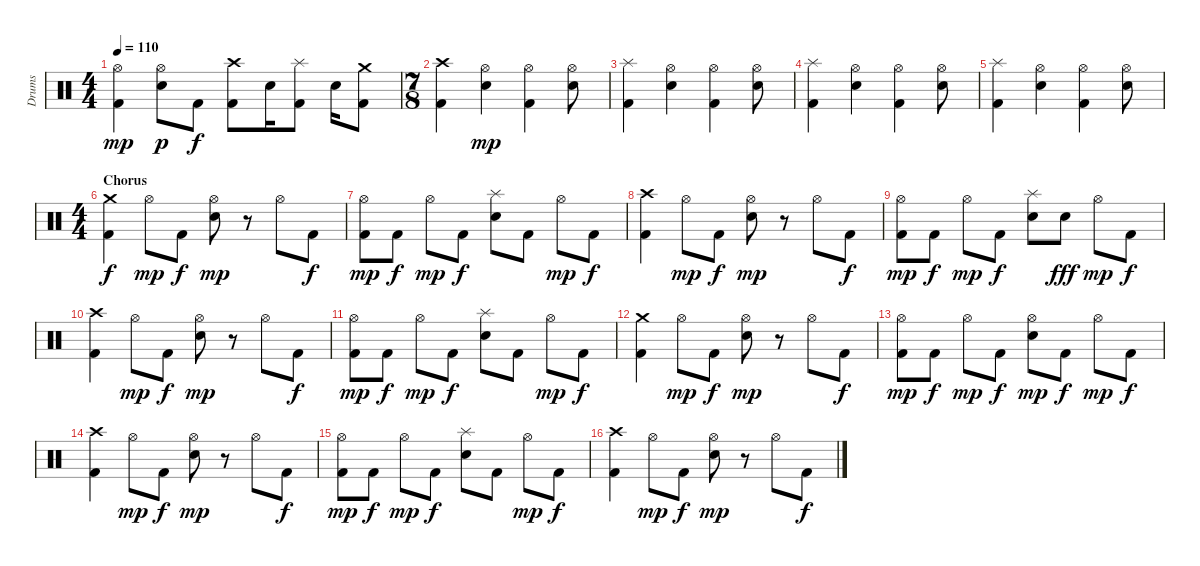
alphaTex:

\track ("Drums" "Drums") {instrument percussion}
\staff {score}
\articulation defaults
\ts (4 4)
\tempo 110
\clef neutral
\ks c
("Hi-Hat (open)" "Kick (hit) 2").4{dy mp} ("Hi-Hat (open)" "Snare (hit) 2").8{dy p} "Kick (hit) 2".8{dy f} ("Crash high (hit)" "Kick (hit) 2").8 "Snare (hit) 2".16 ("Splash (hit)" "Kick (hit) 2").8 "Snare (hit) 2".16 ("Crash medium (hit)" "Kick (hit) 2").8 |
\ts (7 8)
("Crash high (hit)" "Kick (hit) 2").4 ("Hi-Hat (open)" "Snare (hit) 2").4{dy mp} ("Hi-Hat (open)" "Kick (hit) 2").4 ("Hi-Hat (open)" "Snare (hit) 2").8 |
("Splash (hit)" "Kick (hit) 2").4 ("Hi-Hat (open)" "Snare (hit) 2").4 ("Hi-Hat (open)" "Kick (hit) 2").4 ("Hi-Hat (open)" "Snare (hit) 2").8 |
("Splash (hit)" "Kick (hit) 2").4 ("Hi-Hat (open)" "Snare (hit) 2").4 ("Hi-Hat (open)" "Kick (hit) 2").4 ("Hi-Hat (open)" "Snare (hit) 2").8 |
("Splash (hit)" "Kick (hit) 2").4 ("Hi-Hat (open)" "Snare (hit) 2").4 ("Hi-Hat (open)" "Kick (hit) 2").4 ("Hi-Hat (open)" "Snare (hit) 2").8 |
\ts (4 4)
\section ("" "Chorus")
("Crash medium (hit)" "Kick (hit) 2").4{dy f} "Hi-Hat (open)".8{dy mp} "Kick (hit) 2".8{dy f} ("Hi-Hat (open)" "Snare (hit) 2").8{dy mp} r.8 "Hi-Hat (open)".8 "Kick (hit) 2".8{dy f} |
("Hi-Hat (open)" "Kick (hit) 2").8{dy mp} "Kick (hit) 2".8{dy f} "Hi-Hat (open)".8{dy mp} "Kick (hit) 2".8{dy f} ("Splash (hit)" "Snare (hit) 2").8 "Kick (hit) 2".8 "Hi-Hat (open)".8{dy mp} "Kick (hit) 2".8{dy f} |
("Crash high (hit)" "Kick (hit) 2").4 "Hi-Hat (open)".8{dy mp} "Kick (hit) 2".8{dy f} ("Hi-Hat (open)" "Snare (hit) 2").8{dy mp} r.8 "Hi-Hat (open)".8 "Kick (hit) 2".8{dy f} |
("Hi-Hat (open)" "Kick (hit) 2").8{dy mp} "Kick (hit) 2".8{dy f} "Hi-Hat (open)".8{dy mp} "Kick (hit) 2".8{dy f} ("Splash (hit)" "Snare (hit) 2").8 "Snare (hit) 2".8{dy fff} "Hi-Hat (open)".8{dy mp} "Kick (hit) 2".8{dy f} |
("Crash high (hit)" "Kick (hit) 2").4 "Hi-Hat (open)".8{dy mp} "Kick (hit) 2".8{dy f} ("Hi-Hat (open)" "Snare (hit) 2").8{dy mp} r.8 "Hi-Hat (open)".8 "Kick (hit) 2".8{dy f} |
("Hi-Hat (open)" "Kick (hit) 2").8{dy mp} "Kick (hit) 2".8{dy f} "Hi-Hat (open)".8{dy mp} "Kick (hit) 2".8{dy f} ("Splash (hit)" "Snare (hit) 2").8 "Kick (hit) 2".8 "Hi-Hat (open)".8{dy mp} "Kick (hit) 2".8{dy f} |
("Crash medium (hit)" "Kick (hit) 2").4 "Hi-Hat (open)".8{dy mp} "Kick (hit) 2".8{dy f} ("Hi-Hat (open)" "Snare (hit) 2").8{dy mp} r.8 "Hi-Hat (open)".8 "Kick (hit) 2".8{dy f} |
("Hi-Hat (open)" "Kick (hit) 2").8{dy mp} "Kick (hit) 2".8{dy f} "Hi-Hat (open)".8{dy mp} "Kick (hit) 2".8{dy f} ("Hi-Hat (open)" "Snare (hit) 2").8{dy mp} "Kick (hit) 2".8{dy f} "Hi-Hat (open)".8{dy mp} "Kick (hit) 2".8{dy f} |
("Crash high (hit)" "Kick (hit) 2").4 "Hi-Hat (open)".8{dy mp} "Kick (hit) 2".8{dy f} ("Hi-Hat (open)" "Snare (hit) 2").8{dy mp} r.8 "Hi-Hat (open)".8 "Kick (hit) 2".8{dy f} |
("Hi-Hat (open)" "Kick (hit) 2").8{dy mp} "Kick (hit) 2".8{dy f} "Hi-Hat (open)".8{dy mp} "Kick (hit) 2".8{dy f} ("Splash (hit)" "Snare (hit) 2").8 "Kick (hit) 2".8 "Hi-Hat (open)".8{dy mp} "Kick (hit) 2".8{dy f} |
("Crash high (hit)" "Kick (hit) 2").4 "Hi-Hat (open)".8{dy mp} "Kick (hit) 2".8{dy f} ("Hi-Hat (open)" "Snare (hit) 2").8{dy mp} r.8 "Hi-Hat (open)".8 "Kick (hit) 2".8{dy f}
